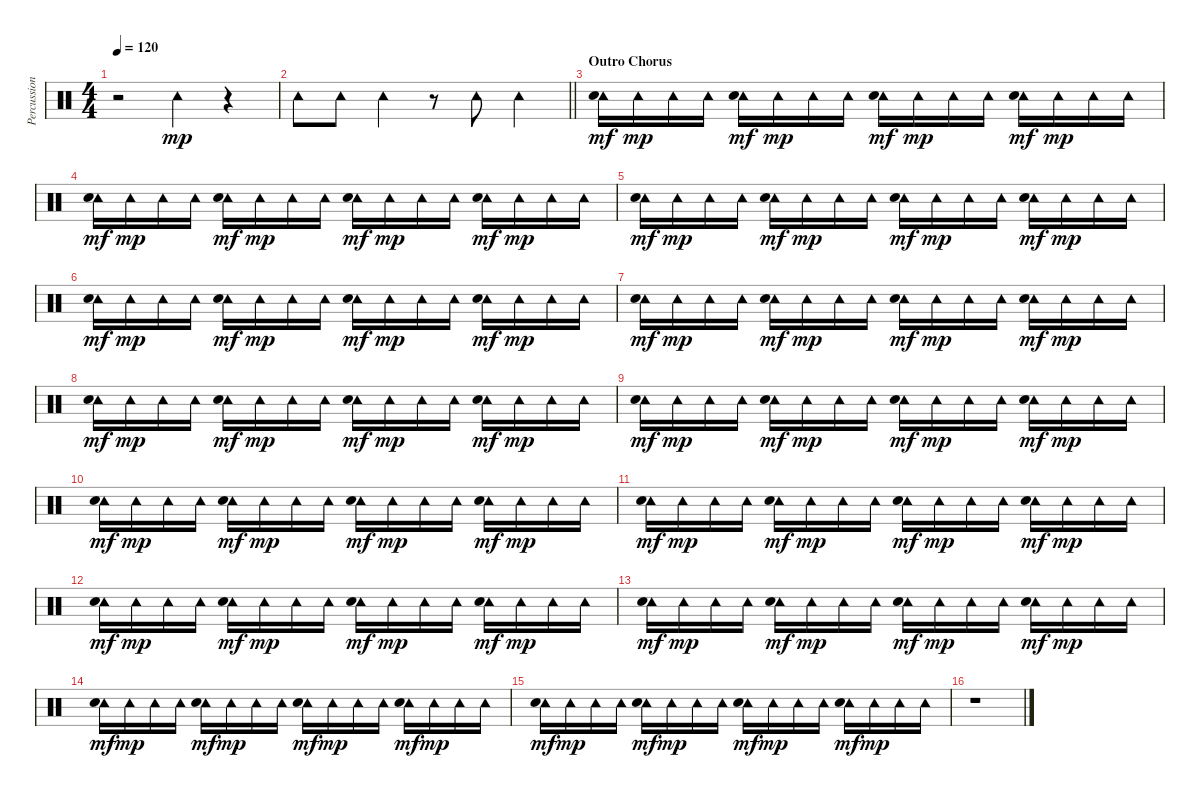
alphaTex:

\track ("Percussion" "Percussion") {instrument percussion}
\staff {score}
\articulation defaults
\ts (4 4)
\tempo 120
\clef neutral
\ks c
r.2{dy mp} "Tambourine (hit)".4 r.4 |
\barLineRight lightlight "Tambourine (hit)".8 "Tambourine (hit)".8 "Tambourine (hit)".4
r.8 "Tambourine (hit)".8 "Tambourine (hit)".4 |
\section ("" "Outro Chorus")
("Tambourine (hit)" "Hand Clap (hit)").16{dy mf} "Tambourine (hit)".16{dy mp} "Tambourine (hit)".16 "Tambourine (hit)".16 ("Tambourine (hit)" "Hand Clap (hit)").16{dy mf} "Tambourine (hit)".16{dy mp} "Tambourine (hit)".16 "Tambourine (hit)".16 ("Tambourine (hit)" "Hand Clap (hit)").16{dy mf} "Tambourine (hit)".16{dy mp} "Tambourine (hit)".16 "Tambourine (hit)".16 ("Tambourine (hit)" "Hand Clap (hit)").16{dy mf} "Tambourine (hit)".16{dy mp} "Tambourine (hit)".16 "Tambourine (hit)".16 |
("Tambourine (hit)" "Hand Clap (hit)").16{dy mf} "Tambourine (hit)".16{dy mp} "Tambourine (hit)".16 "Tambourine (hit)".16 ("Tambourine (hit)" "Hand Clap (hit)").16{dy mf} "Tambourine (hit)".16{dy mp} "Tambourine (hit)".16 "Tambourine (hit)".16 ("Tambourine (hit)" "Hand Clap (hit)").16{dy mf} "Tambourine (hit)".16{dy mp} "Tambourine (hit)".16 "Tambourine (hit)".16 ("Tambourine (hit)" "Hand Clap (hit)").16{dy mf} "Tambourine (hit)".16{dy mp} "Tambourine (hit)".16 "Tambourine (hit)".16 |
("Tambourine (hit)" "Hand Clap (hit)").16{dy mf} "Tambourine (hit)".16{dy mp} "Tambourine (hit)".16 "Tambourine (hit)".16 ("Tambourine (hit)" "Hand Clap (hit)").16{dy mf} "Tambourine (hit)".16{dy mp} "Tambourine (hit)".16 "Tambourine (hit)".16 ("Tambourine (hit)" "Hand Clap (hit)").16{dy mf} "Tambourine (hit)".16{dy mp} "Tambourine (hit)".16 "Tambourine (hit)".16 ("Tambourine (hit)" "Hand Clap (hit)").16{dy mf} "Tambourine (hit)".16{dy mp} "Tambourine (hit)".16 "Tambourine (hit)".16 |
("Tambourine (hit)" "Hand Clap (hit)").16{dy mf} "Tambourine (hit)".16{dy mp} "Tambourine (hit)".16 "Tambourine (hit)".16 ("Tambourine (hit)" "Hand Clap (hit)").16{dy mf} "Tambourine (hit)".16{dy mp} "Tambourine (hit)".16 "Tambourine (hit)".16 ("Tambourine (hit)" "Hand Clap (hit)").16{dy mf} "Tambourine (hit)".16{dy mp} "Tambourine (hit)".16 "Tambourine (hit)".16 ("Tambourine (hit)" "Hand Clap (hit)").16{dy mf} "Tambourine (hit)".16{dy mp} "Tambourine (hit)".16 "Tambourine (hit)".16 |
("Tambourine (hit)" "Hand Clap (hit)").16{dy mf} "Tambourine (hit)".16{dy mp} "Tambourine (hit)".16 "Tambourine (hit)".16 ("Tambourine (hit)" "Hand Clap (hit)").16{dy mf} "Tambourine (hit)".16{dy mp} "Tambourine (hit)".16 "Tambourine (hit)".16 ("Tambourine (hit)" "Hand Clap (hit)").16{dy mf} "Tambourine (hit)".16{dy mp} "Tambourine (hit)".16 "Tambourine (hit)".16 ("Tambourine (hit)" "Hand Clap (hit)").16{dy mf} "Tambourine (hit)".16{dy mp} "Tambourine (hit)".16 "Tambourine (hit)".16 |
("Tambourine (hit)" "Hand Clap (hit)").16{dy mf} "Tambourine (hit)".16{dy mp} "Tambourine (hit)".16 "Tambourine (hit)".16 ("Tambourine (hit)" "Hand Clap (hit)").16{dy mf} "Tambourine (hit)".16{dy mp} "Tambourine (hit)".16 "Tambourine (hit)".16 ("Tambourine (hit)" "Hand Clap (hit)").16{dy mf} "Tambourine (hit)".16{dy mp} "Tambourine (hit)".16 "Tambourine (hit)".16 ("Tambourine (hit)" "Hand Clap (hit)").16{dy mf} "Tambourine (hit)".16{dy mp} "Tambourine (hit)".16 "Tambourine (hit)".16 |
("Tambourine (hit)" "Hand Clap (hit)").16{dy mf} "Tambourine (hit)".16{dy mp} "Tambourine (hit)".16 "Tambourine (hit)".16 ("Tambourine (hit)" "Hand Clap (hit)").16{dy mf} "Tambourine (hit)".16{dy mp} "Tambourine (hit)".16 "Tambourine (hit)".16 ("Tambourine (hit)" "Hand Clap (hit)").16{dy mf} "Tambourine (hit)".16{dy mp} "Tambourine (hit)".16 "Tambourine (hit)".16 ("Tambourine (hit)" "Hand Clap (hit)").16{dy mf} "Tambourine (hit)".16{dy mp} "Tambourine (hit)".16 "Tambourine (hit)".16 |
("Tambourine (hit)" "Hand Clap (hit)").16{dy mf} "Tambourine (hit)".16{dy mp} "Tambourine (hit)".16 "Tambourine (hit)".16 ("Tambourine (hit)" "Hand Clap (hit)").16{dy mf} "Tambourine (hit)".16{dy mp} "Tambourine (hit)".16 "Tambourine (hit)".16 ("Tambourine (hit)" "Hand Clap (hit)").16{dy mf} "Tambourine (hit)".16{dy mp} "Tambourine (hit)".16 "Tambourine (hit)".16 ("Tambourine (hit)" "Hand Clap (hit)").16{dy mf} "Tambourine (hit)".16{dy mp} "Tambourine (hit)".16 "Tambourine (hit)".16 |
("Tambourine (hit)" "Hand Clap (hit)").16{dy mf} "Tambourine (hit)".16{dy mp} "Tambourine (hit)".16 "Tambourine (hit)".16 ("Tambourine (hit)" "Hand Clap (hit)").16{dy mf} "Tambourine (hit)".16{dy mp} "Tambourine (hit)".16 "Tambourine (hit)".16 ("Tambourine (hit)" "Hand Clap (hit)").16{dy mf} "Tambourine (hit)".16{dy mp} "Tambourine (hit)".16 "Tambourine (hit)".16 ("Tambourine (hit)" "Hand Clap (hit)").16{dy mf} "Tambourine (hit)".16{dy mp} "Tambourine (hit)".16 "Tambourine (hit)".16 |
("Tambourine (hit)" "Hand Clap (hit)").16{dy mf} "Tambourine (hit)".16{dy mp} "Tambourine (hit)".16 "Tambourine (hit)".16 ("Tambourine (hit)" "Hand Clap (hit)").16{dy mf} "Tambourine (hit)".16{dy mp} "Tambourine (hit)".16 "Tambourine (hit)".16 ("Tambourine (hit)" "Hand Clap (hit)").16{dy mf} "Tambourine (hit)".16{dy mp} "Tambourine (hit)".16 "Tambourine (hit)".16 ("Tambourine (hit)" "Hand Clap (hit)").16{dy mf} "Tambourine (hit)".16{dy mp} "Tambourine (hit)".16 "Tambourine (hit)".16 |
("Tambourine (hit)" "Hand Clap (hit)").16{dy mf} "Tambourine (hit)".16{dy mp} "Tambourine (hit)".16 "Tambourine (hit)".16 ("Tambourine (hit)" "Hand Clap (hit)").16{dy mf} "Tambourine (hit)".16{dy mp} "Tambourine (hit)".16 "Tambourine (hit)".16 ("Tambourine (hit)" "Hand Clap (hit)").16{dy mf} "Tambourine (hit)".16{dy mp} "Tambourine (hit)".16 "Tambourine (hit)".16 ("Tambourine (hit)" "Hand Clap (hit)").16{dy mf} "Tambourine (hit)".16{dy mp} "Tambourine (hit)".16 "Tambourine (hit)".16 |
("Tambourine (hit)" "Hand Clap (hit)").16{dy mf} "Tambourine (hit)".16{dy mp} "Tambourine (hit)".16 "Tambourine (hit)".16 ("Tambourine (hit)" "Hand Clap (hit)").16{dy mf} "Tambourine (hit)".16{dy mp} "Tambourine (hit)".16 "Tambourine (hit)".16 ("Tambourine (hit)" "Hand Clap (hit)").16{dy mf} "Tambourine (hit)".16{dy mp} "Tambourine (hit)".16 "Tambourine (hit)".16 ("Tambourine (hit)" "Hand Clap (hit)").16{dy mf} "Tambourine (hit)".16{dy mp} "Tambourine (hit)".16 "Tambourine (hit)".16 |
("Tambourine (hit)" "Hand Clap (hit)").16{dy mf} "Tambourine (hit)".16{dy mp} "Tambourine (hit)".16 "Tambourine (hit)".16 ("Tambourine (hit)" "Hand Clap (hit)").16{dy mf} "Tambourine (hit)".16{dy mp} "Tambourine (hit)".16 "Tambourine (hit)".16 ("Tambourine (hit)" "Hand Clap (hit)").16{dy mf} "Tambourine (hit)".16{dy mp} "Tambourine (hit)".16 "Tambourine (hit)".16 ("Tambourine (hit)" "Hand Clap (hit)").16{dy mf} "Tambourine (hit)".16{dy mp} "Tambourine (hit)".16 "Tambourine (hit)".16 |
r.1
